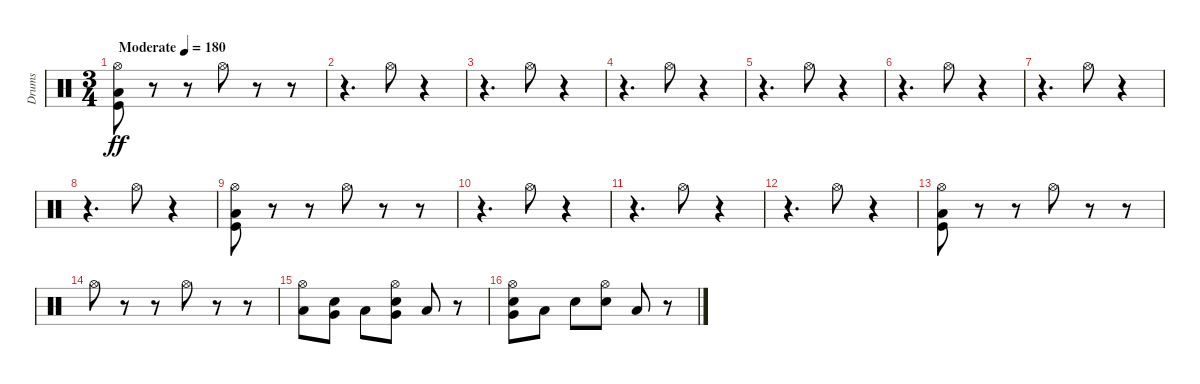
\track ("Drums" "Drums") {instrument percussion}
\staff {score}
\articulation defaults
\ts (3 4)
\tempo (180 "Moderate")
\clef neutral
\ks c
("Hi-Hat (open)" "Low Floor Tom (hit)" "Kick (hit)").8{dy ff} r.8 r.8 "Hi-Hat (open)".8 r.8 r.8 |
r.4{d} "Hi-Hat (open)".8 r.4 |
r.4{d} "Hi-Hat (open)".8 r.4 |
r.4{d} "Hi-Hat (open)".8 r.4 |
r.4{d} "Hi-Hat (open)".8 r.4 |
r.4{d} "Hi-Hat (open)".8 r.4 |
r.4{d} "Hi-Hat (open)".8 r.4 |
r.4{d} "Hi-Hat (open)".8 r.4 |
("Hi-Hat (open)" "Low Floor Tom (hit)" "Kick (hit)").8 r.8 r.8 "Hi-Hat (open)".8 r.8 r.8 |
r.4{d} "Hi-Hat (open)".8 r.4 |
r.4{d} "Hi-Hat (open)".8 r.4 |
r.4{d} "Hi-Hat (open)".8 r.4 |
("Hi-Hat (open)" "Low Floor Tom (hit)" "Kick (hit)").8 r.8 r.8 "Hi-Hat (open)".8 r.8 r.8 |
"Hi-Hat (open)".8 r.8 r.8 "Hi-Hat (open)".8 r.8 r.8 |
("Hi-Hat (open)" "Low Floor Tom (hit)").8 ("Snare (hit) 2" "Very Low Tom (hit)").8 "Low Floor Tom (hit)".8 ("Hi-Hat (open)" "Snare (hit) 2" "Very Low Tom (hit)").8 "Low Tom (hit)".8 r.8 |
("Hi-Hat (open)" "Snare (hit) 2" "Very Low Tom (hit)").8 "Low Tom (hit)".8 "Snare (hit) 2".8 ("Hi-Hat (open)" "Snare (hit) 2").8 "Low Floor Tom (hit)".8 r.8
